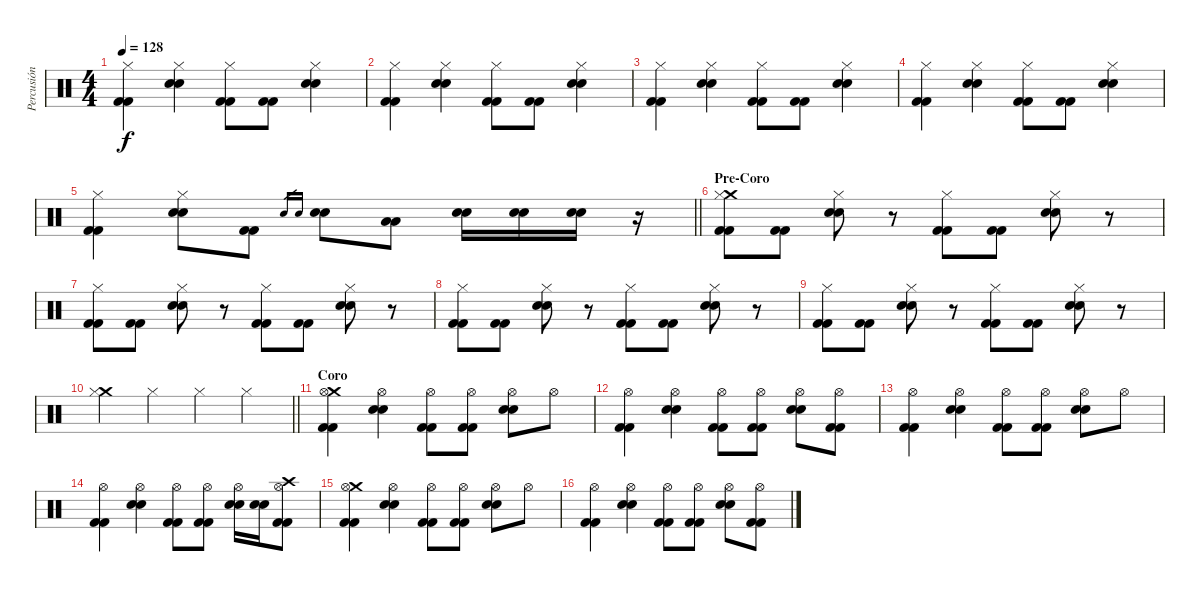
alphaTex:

\track ("Percusión" "Percusión") {instrument percussion}
\staff {score}
\articulation defaults
\ts (4 4)
\tempo 128
\clef neutral
\ks c
("Hi-Hat (closed)" "Kick (hit) 2" "Kick (hit) 2").4{dy f} ("Hi-Hat (closed)" "Electric Snare (hit)" "Electric Snare (hit)").4 ("Hi-Hat (closed)" "Kick (hit) 2" "Kick (hit) 2").8 ("Kick (hit) 2" "Kick (hit) 2").8 ("Hi-Hat (closed)" "Electric Snare (hit)" "Electric Snare (hit)").4 |
("Hi-Hat (closed)" "Kick (hit) 2" "Kick (hit) 2").4 ("Hi-Hat (closed)" "Electric Snare (hit)" "Electric Snare (hit)").4 ("Hi-Hat (closed)" "Kick (hit) 2" "Kick (hit) 2").8 ("Kick (hit) 2" "Kick (hit) 2").8 ("Hi-Hat (closed)" "Electric Snare (hit)" "Electric Snare (hit)").4 |
("Hi-Hat (closed)" "Kick (hit) 2" "Kick (hit) 2").4 ("Hi-Hat (closed)" "Electric Snare (hit)" "Electric Snare (hit)").4 ("Hi-Hat (closed)" "Kick (hit) 2" "Kick (hit) 2").8 ("Kick (hit) 2" "Kick (hit) 2").8 ("Hi-Hat (closed)" "Electric Snare (hit)" "Electric Snare (hit)").4 |
("Hi-Hat (closed)" "Kick (hit) 2" "Kick (hit) 2").4 ("Hi-Hat (closed)" "Electric Snare (hit)" "Electric Snare (hit)").4 ("Hi-Hat (closed)" "Kick (hit) 2" "Kick (hit) 2").8 ("Kick (hit) 2" "Kick (hit) 2").8 ("Hi-Hat (closed)" "Electric Snare (hit)" "Electric Snare (hit)").4 |
\barLineRight lightlight
("Hi-Hat (closed)" "Kick (hit) 2" "Kick (hit) 2").4 ("Hi-Hat (closed)" "Electric Snare (hit)" "Electric Snare (hit)").8 ("Kick (hit) 2" "Kick (hit) 2").8 "Electric Snare (hit)".16{gr} "Electric Snare (hit)".16{gr} ("Electric Snare (hit)" "Electric Snare (hit)").8 ("Low Tom (hit)" "Low Tom (hit)").8 ("Electric Snare (hit)" "Electric Snare (hit)").16 ("Electric Snare (hit)" "Electric Snare (hit)").16 ("Electric Snare (hit)" "Electric Snare (hit)").16 r.16 |
\section ("" "Pre-Coro")
("Crash medium (hit)" "Hi-Hat (closed)" "Kick (hit) 2" "Kick (hit) 2").8 ("Kick (hit) 2" "Kick (hit) 2").8 ("Hi-Hat (closed)" "Electric Snare (hit)" "Electric Snare (hit)").8 r.8 ("Hi-Hat (closed)" "Kick (hit) 2" "Kick (hit) 2").8 ("Kick (hit) 2" "Kick (hit) 2").8 ("Hi-Hat (closed)" "Electric Snare (hit)" "Electric Snare (hit)").8 r.8 |
("Hi-Hat (closed)" "Kick (hit) 2" "Kick (hit) 2").8 ("Kick (hit) 2" "Kick (hit) 2").8 ("Hi-Hat (closed)" "Electric Snare (hit)" "Electric Snare (hit)").8 r.8 ("Hi-Hat (closed)" "Kick (hit) 2" "Kick (hit) 2").8 ("Kick (hit) 2" "Kick (hit) 2").8 ("Hi-Hat (closed)" "Electric Snare (hit)" "Electric Snare (hit)").8 r.8 |
("Hi-Hat (closed)" "Kick (hit) 2" "Kick (hit) 2").8 ("Kick (hit) 2" "Kick (hit) 2").8 ("Hi-Hat (closed)" "Electric Snare (hit)" "Electric Snare (hit)").8 r.8 ("Hi-Hat (closed)" "Kick (hit) 2" "Kick (hit) 2").8 ("Kick (hit) 2" "Kick (hit) 2").8 ("Hi-Hat (closed)" "Electric Snare (hit)" "Electric Snare (hit)").8 r.8 |
("Hi-Hat (closed)" "Kick (hit) 2" "Kick (hit) 2").8 ("Kick (hit) 2" "Kick (hit) 2").8 ("Hi-Hat (closed)" "Electric Snare (hit)" "Electric Snare (hit)").8 r.8 ("Hi-Hat (closed)" "Kick (hit) 2" "Kick (hit) 2").8 ("Kick (hit) 2" "Kick (hit) 2").8 ("Hi-Hat (closed)" "Electric Snare (hit)" "Electric Snare (hit)").8 r.8 |
\barLineRight lightlight
("Crash medium (hit)" "Hi-Hat (closed)").4 "Hi-Hat (closed)".4 "Hi-Hat (closed)".4 "Hi-Hat (closed)".4 |
\section ("" "Coro")
("Crash medium (hit)" "Hi-Hat (open)" "Kick (hit) 2" "Kick (hit) 2").4 ("Hi-Hat (open)" "Electric Snare (hit)" "Electric Snare (hit)").4 ("Hi-Hat (open)" "Kick (hit) 2" "Kick (hit) 2").8 ("Hi-Hat (open)" "Kick (hit) 2" "Kick (hit) 2").8 ("Hi-Hat (open)" "Electric Snare (hit)" "Electric Snare (hit)").8 "Hi-Hat (open)".8 |
("Hi-Hat (open)" "Kick (hit) 2" "Kick (hit) 2").4 ("Hi-Hat (open)" "Electric Snare (hit)" "Electric Snare (hit)").4 ("Hi-Hat (open)" "Kick (hit) 2" "Kick (hit) 2").8 ("Hi-Hat (open)" "Kick (hit) 2" "Kick (hit) 2").8 ("Hi-Hat (open)" "Electric Snare (hit)" "Electric Snare (hit)").8 ("Hi-Hat (open)" "Kick (hit) 2" "Kick (hit) 2").8 |
("Hi-Hat (open)" "Kick (hit) 2" "Kick (hit) 2").4 ("Hi-Hat (open)" "Electric Snare (hit)" "Electric Snare (hit)").4 ("Hi-Hat (open)" "Kick (hit) 2" "Kick (hit) 2").8 ("Hi-Hat (open)" "Kick (hit) 2" "Kick (hit) 2").8 ("Hi-Hat (open)" "Electric Snare (hit)" "Electric Snare (hit)").8 "Hi-Hat (open)".8 |
("Hi-Hat (open)" "Kick (hit) 2" "Kick (hit) 2").4 ("Hi-Hat (open)" "Electric Snare (hit)" "Electric Snare (hit)").4 ("Hi-Hat (open)" "Kick (hit) 2" "Kick (hit) 2").8 ("Hi-Hat (open)" "Kick (hit) 2" "Kick (hit) 2").8 ("Hi-Hat (open)" "Electric Snare (hit)" "Electric Snare (hit)").16 ("Electric Snare (hit)" "Electric Snare (hit)").16 ("Crash high (hit)" "Hi-Hat (open)" "Kick (hit) 2" "Kick (hit) 2").8 |
("Crash medium (hit)" "Hi-Hat (open)" "Kick (hit) 2" "Kick (hit) 2").4 ("Hi-Hat (open)" "Electric Snare (hit)" "Electric Snare (hit)").4 ("Hi-Hat (open)" "Kick (hit) 2" "Kick (hit) 2").8 ("Hi-Hat (open)" "Kick (hit) 2" "Kick (hit) 2").8 ("Hi-Hat (open)" "Electric Snare (hit)" "Electric Snare (hit)").8 "Hi-Hat (open)".8 |
("Hi-Hat (open)" "Kick (hit) 2" "Kick (hit) 2").4 ("Hi-Hat (open)" "Electric Snare (hit)" "Electric Snare (hit)").4 ("Hi-Hat (open)" "Kick (hit) 2" "Kick (hit) 2").8 ("Hi-Hat (open)" "Kick (hit) 2" "Kick (hit) 2").8 ("Hi-Hat (open)" "Electric Snare (hit)" "Electric Snare (hit)").8 ("Hi-Hat (open)" "Kick (hit) 2" "Kick (hit) 2").8
